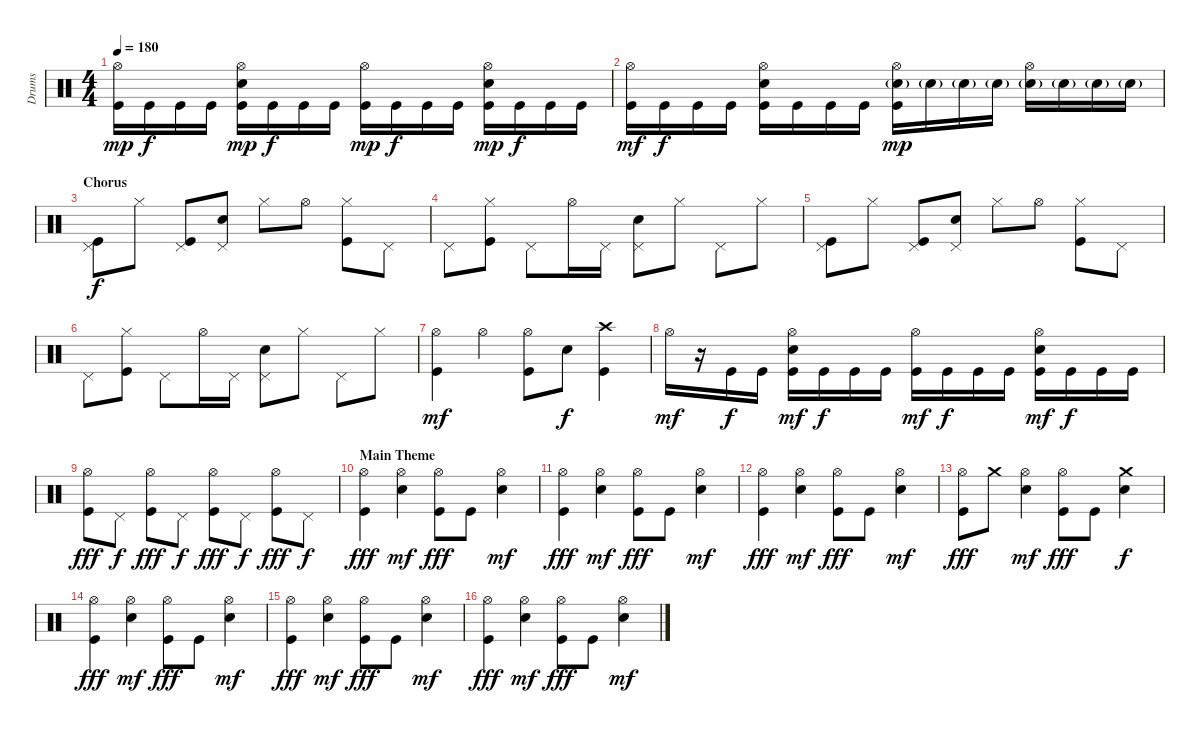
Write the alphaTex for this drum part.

\track ("Drums" "Drums") {instrument percussion}
\staff {score}
\articulation defaults
\ts (4 4)
\tempo 180
\clef neutral
\ks c
("Hi-Hat (open)" "Kick (hit)").16{dy mp} "Kick (hit)".16{dy f} "Kick (hit)".16 "Kick (hit)".16 ("Hi-Hat (open)" "Electric Snare (hit)" "Kick (hit)").16{dy mp} "Kick (hit)".16{dy f} "Kick (hit)".16 "Kick (hit)".16 ("Hi-Hat (open)" "Kick (hit)").16{dy mp} "Kick (hit)".16{dy f} "Kick (hit)".16 "Kick (hit)".16 ("Hi-Hat (open)" "Electric Snare (hit)" "Kick (hit)").16{dy mp} "Kick (hit)".16{dy f} "Kick (hit)".16 "Kick (hit)".16 |
("Hi-Hat (open)" "Kick (hit)").16{dy mf} "Kick (hit)".16{dy f} "Kick (hit)".16 "Kick (hit)".16 ("Hi-Hat (open)" "Electric Snare (hit)" "Kick (hit)").16 "Kick (hit)".16 "Kick (hit)".16 "Kick (hit)".16 ("Hi-Hat (open)" "Electric Snare (hit)"{g} "Kick (hit)").16{dy mp} "Electric Snare (hit)"{g}.16 "Electric Snare (hit)"{g}.16 "Electric Snare (hit)"{g}.16 ("Hi-Hat (open)" "Electric Snare (hit)"{g}).16 "Electric Snare (hit)"{g}.16 "Electric Snare (hit)"{g}.16 "Electric Snare (hit)"{g}.16 |
\section ("" "Chorus")
("Pedal Hi-Hat (hit)" "Kick (hit)").8{dy f} "Hi-Hat (closed)".8 ("Pedal Hi-Hat (hit)" "Kick (hit)").8 ("Pedal Hi-Hat (hit)" "Electric Snare (hit)").8 "Hi-Hat (closed)".8 "Hi-Hat (open)".8 ("Hi-Hat (closed)" "Kick (hit)").8 "Pedal Hi-Hat (hit)".8 |
"Pedal Hi-Hat (hit)".8 ("Hi-Hat (closed)" "Kick (hit)").8 "Pedal Hi-Hat (hit)".8 "Hi-Hat (open)".16 "Pedal Hi-Hat (hit)".16 ("Pedal Hi-Hat (hit)" "Electric Snare (hit)").8 "Hi-Hat (closed)".8 "Pedal Hi-Hat (hit)".8 "Hi-Hat (closed)".8 |
("Pedal Hi-Hat (hit)" "Kick (hit)").8 "Hi-Hat (closed)".8 ("Pedal Hi-Hat (hit)" "Kick (hit)").8 ("Pedal Hi-Hat (hit)" "Electric Snare (hit)").8 "Hi-Hat (closed)".8 "Hi-Hat (open)".8 ("Hi-Hat (closed)" "Kick (hit)").8 "Pedal Hi-Hat (hit)".8 |
"Pedal Hi-Hat (hit)".8 ("Hi-Hat (closed)" "Kick (hit)").8 "Pedal Hi-Hat (hit)".8 "Hi-Hat (open)".16 "Pedal Hi-Hat (hit)".16 ("Pedal Hi-Hat (hit)" "Electric Snare (hit)").8 "Hi-Hat (closed)".8 "Pedal Hi-Hat (hit)".8 "Hi-Hat (closed)".8 |
("Hi-Hat (open)" "Kick (hit)").4{dy mf} "Hi-Hat (open)".4 ("Hi-Hat (open)" "Kick (hit)").8 "Electric Snare (hit)".8{dy f} ("Crash high (hit)" "Kick (hit)").4 |
"Hi-Hat (open)".16{dy mf} r.16 "Kick (hit)".16{dy f} "Kick (hit)".16 ("Hi-Hat (open)" "Electric Snare (hit)" "Kick (hit)").16{dy mf} "Kick (hit)".16{dy f} "Kick (hit)".16 "Kick (hit)".16 ("Hi-Hat (open)" "Kick (hit)").16{dy mf} "Kick (hit)".16{dy f} "Kick (hit)".16 "Kick (hit)".16 ("Hi-Hat (open)" "Electric Snare (hit)" "Kick (hit)").16{dy mf} "Kick (hit)".16{dy f} "Kick (hit)".16 "Kick (hit)".16 |
("Hi-Hat (open)" "Kick (hit)").8{dy fff} "Pedal Hi-Hat (hit)".8{dy f} ("Hi-Hat (open)" "Kick (hit)").8{dy fff} "Pedal Hi-Hat (hit)".8{dy f} ("Hi-Hat (open)" "Kick (hit)").8{dy fff} "Pedal Hi-Hat (hit)".8{dy f} ("Hi-Hat (open)" "Kick (hit)").8{dy fff} "Pedal Hi-Hat (hit)".8{dy f} |
\section ("" "Main Theme")
("Hi-Hat (open)" "Kick (hit)").4{dy fff} ("Hi-Hat (open)" "Electric Snare (hit)").4{dy mf} ("Hi-Hat (open)" "Kick (hit)").8{dy fff} "Kick (hit)".8 ("Hi-Hat (open)" "Electric Snare (hit)").4{dy mf} |
("Hi-Hat (open)" "Kick (hit)").4{dy fff} ("Hi-Hat (open)" "Electric Snare (hit)").4{dy mf} ("Hi-Hat (open)" "Kick (hit)").8{dy fff} "Kick (hit)".8 ("Hi-Hat (open)" "Electric Snare (hit)").4{dy mf} |
("Hi-Hat (open)" "Kick (hit)").4{dy fff} ("Hi-Hat (open)" "Electric Snare (hit)").4{dy mf} ("Hi-Hat (open)" "Kick (hit)").8{dy fff} "Kick (hit)".8 ("Hi-Hat (open)" "Electric Snare (hit)").4{dy mf} |
("Hi-Hat (open)" "Kick (hit)").8{dy fff} "Crash medium (hit)".8 ("Hi-Hat (open)" "Electric Snare (hit)").4{dy mf} ("Hi-Hat (open)" "Kick (hit)").8{dy fff} "Kick (hit)".8 ("Crash medium (hit)" "Electric Snare (hit)").4{dy f} |
("Hi-Hat (open)" "Kick (hit)").4{dy fff} ("Hi-Hat (open)" "Electric Snare (hit)").4{dy mf} ("Hi-Hat (open)" "Kick (hit)").8{dy fff} "Kick (hit)".8 ("Hi-Hat (open)" "Electric Snare (hit)").4{dy mf} |
("Hi-Hat (open)" "Kick (hit)").4{dy fff} ("Hi-Hat (open)" "Electric Snare (hit)").4{dy mf} ("Hi-Hat (open)" "Kick (hit)").8{dy fff} "Kick (hit)".8 ("Hi-Hat (open)" "Electric Snare (hit)").4{dy mf} |
("Hi-Hat (open)" "Kick (hit)").4{dy fff} ("Hi-Hat (open)" "Electric Snare (hit)").4{dy mf} ("Hi-Hat (open)" "Kick (hit)").8{dy fff} "Kick (hit)".8 ("Hi-Hat (open)" "Electric Snare (hit)").4{dy mf}
